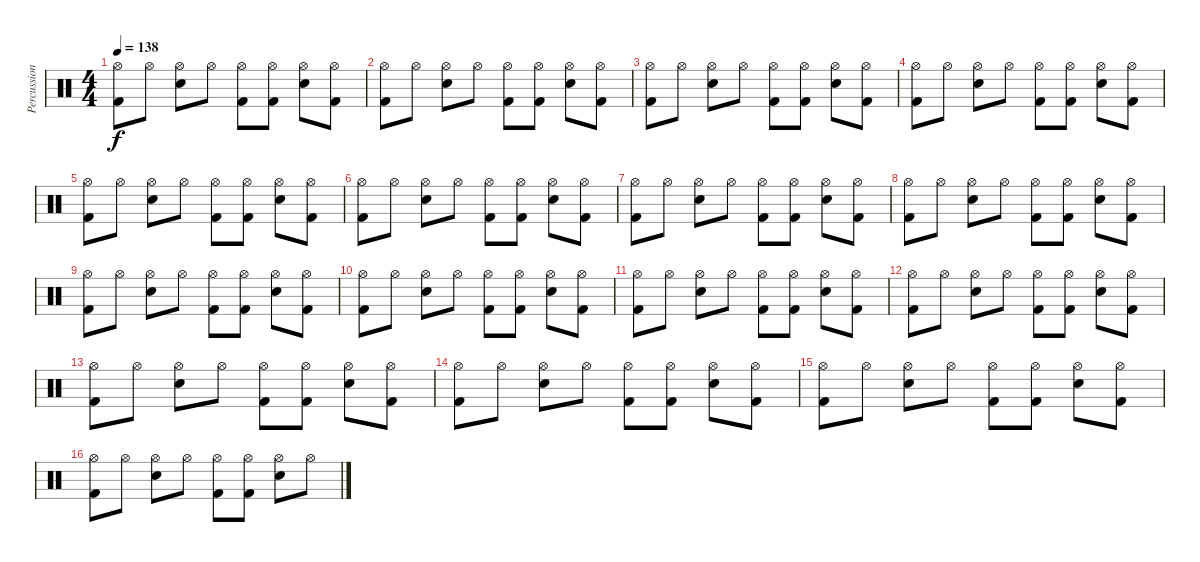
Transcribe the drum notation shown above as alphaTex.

\track ("Percussion" "Percussion") {instrument percussion}
\staff {score}
\articulation defaults
\ts (4 4)
\tempo 138
\clef neutral
\ks c
("Hi-Hat (open)" "Kick (hit) 2").8{dy f} "Hi-Hat (open)".8 ("Hi-Hat (open)" "Snare (hit) 2").8 "Hi-Hat (open)".8 ("Hi-Hat (open)" "Kick (hit) 2").8 ("Hi-Hat (open)" "Kick (hit) 2").8 ("Hi-Hat (open)" "Snare (hit) 2").8 ("Hi-Hat (open)" "Kick (hit) 2").8 |
("Hi-Hat (open)" "Kick (hit) 2").8 "Hi-Hat (open)".8 ("Hi-Hat (open)" "Snare (hit) 2").8 "Hi-Hat (open)".8 ("Hi-Hat (open)" "Kick (hit) 2").8 ("Hi-Hat (open)" "Kick (hit) 2").8 ("Hi-Hat (open)" "Snare (hit) 2").8 ("Hi-Hat (open)" "Kick (hit) 2").8 |
("Hi-Hat (open)" "Kick (hit) 2").8 "Hi-Hat (open)".8 ("Hi-Hat (open)" "Snare (hit) 2").8 "Hi-Hat (open)".8 ("Hi-Hat (open)" "Kick (hit) 2").8 ("Hi-Hat (open)" "Kick (hit) 2").8 ("Hi-Hat (open)" "Snare (hit) 2").8 ("Hi-Hat (open)" "Kick (hit) 2").8 |
("Hi-Hat (open)" "Kick (hit) 2").8 "Hi-Hat (open)".8 ("Hi-Hat (open)" "Snare (hit) 2").8 "Hi-Hat (open)".8 ("Hi-Hat (open)" "Kick (hit) 2").8 ("Hi-Hat (open)" "Kick (hit) 2").8 ("Hi-Hat (open)" "Snare (hit) 2").8 ("Hi-Hat (open)" "Kick (hit) 2").8 |
("Hi-Hat (open)" "Kick (hit) 2").8 "Hi-Hat (open)".8 ("Hi-Hat (open)" "Snare (hit) 2").8 "Hi-Hat (open)".8 ("Hi-Hat (open)" "Kick (hit) 2").8 ("Hi-Hat (open)" "Kick (hit) 2").8 ("Hi-Hat (open)" "Snare (hit) 2").8 ("Hi-Hat (open)" "Kick (hit) 2").8 |
("Hi-Hat (open)" "Kick (hit) 2").8 "Hi-Hat (open)".8 ("Hi-Hat (open)" "Snare (hit) 2").8 "Hi-Hat (open)".8 ("Hi-Hat (open)" "Kick (hit) 2").8 ("Hi-Hat (open)" "Kick (hit) 2").8 ("Hi-Hat (open)" "Snare (hit) 2").8 ("Hi-Hat (open)" "Kick (hit) 2").8 |
("Hi-Hat (open)" "Kick (hit) 2").8 "Hi-Hat (open)".8 ("Hi-Hat (open)" "Snare (hit) 2").8 "Hi-Hat (open)".8 ("Hi-Hat (open)" "Kick (hit) 2").8 ("Hi-Hat (open)" "Kick (hit) 2").8 ("Hi-Hat (open)" "Snare (hit) 2").8 ("Hi-Hat (open)" "Kick (hit) 2").8 |
("Hi-Hat (open)" "Kick (hit) 2").8 "Hi-Hat (open)".8 ("Hi-Hat (open)" "Snare (hit) 2").8 "Hi-Hat (open)".8 ("Hi-Hat (open)" "Kick (hit) 2").8 ("Hi-Hat (open)" "Kick (hit) 2").8 ("Hi-Hat (open)" "Snare (hit) 2").8 ("Hi-Hat (open)" "Kick (hit) 2").8 |
("Hi-Hat (open)" "Kick (hit) 2").8 "Hi-Hat (open)".8 ("Hi-Hat (open)" "Snare (hit) 2").8 "Hi-Hat (open)".8 ("Hi-Hat (open)" "Kick (hit) 2").8 ("Hi-Hat (open)" "Kick (hit) 2").8 ("Hi-Hat (open)" "Snare (hit) 2").8 ("Hi-Hat (open)" "Kick (hit) 2").8 |
("Hi-Hat (open)" "Kick (hit) 2").8 "Hi-Hat (open)".8 ("Hi-Hat (open)" "Snare (hit) 2").8 "Hi-Hat (open)".8 ("Hi-Hat (open)" "Kick (hit) 2").8 ("Hi-Hat (open)" "Kick (hit) 2").8 ("Hi-Hat (open)" "Snare (hit) 2").8 ("Hi-Hat (open)" "Kick (hit) 2").8 |
("Hi-Hat (open)" "Kick (hit) 2").8 "Hi-Hat (open)".8 ("Hi-Hat (open)" "Snare (hit) 2").8 "Hi-Hat (open)".8 ("Hi-Hat (open)" "Kick (hit) 2").8 ("Hi-Hat (open)" "Kick (hit) 2").8 ("Hi-Hat (open)" "Snare (hit) 2").8 ("Hi-Hat (open)" "Kick (hit) 2").8 |
("Hi-Hat (open)" "Kick (hit) 2").8 "Hi-Hat (open)".8 ("Hi-Hat (open)" "Snare (hit) 2").8 "Hi-Hat (open)".8 ("Hi-Hat (open)" "Kick (hit) 2").8 ("Hi-Hat (open)" "Kick (hit) 2").8 ("Hi-Hat (open)" "Snare (hit) 2").8 ("Hi-Hat (open)" "Kick (hit) 2").8 |
("Hi-Hat (open)" "Kick (hit) 2").8 "Hi-Hat (open)".8 ("Hi-Hat (open)" "Snare (hit) 2").8 "Hi-Hat (open)".8 ("Hi-Hat (open)" "Kick (hit) 2").8 ("Hi-Hat (open)" "Kick (hit) 2").8 ("Hi-Hat (open)" "Snare (hit) 2").8 ("Hi-Hat (open)" "Kick (hit) 2").8 |
("Hi-Hat (open)" "Kick (hit) 2").8 "Hi-Hat (open)".8 ("Hi-Hat (open)" "Snare (hit) 2").8 "Hi-Hat (open)".8 ("Hi-Hat (open)" "Kick (hit) 2").8 ("Hi-Hat (open)" "Kick (hit) 2").8 ("Hi-Hat (open)" "Snare (hit) 2").8 ("Hi-Hat (open)" "Kick (hit) 2").8 |
("Hi-Hat (open)" "Kick (hit) 2").8 "Hi-Hat (open)".8 ("Hi-Hat (open)" "Snare (hit) 2").8 "Hi-Hat (open)".8 ("Hi-Hat (open)" "Kick (hit) 2").8 ("Hi-Hat (open)" "Kick (hit) 2").8 ("Hi-Hat (open)" "Snare (hit) 2").8 ("Hi-Hat (open)" "Kick (hit) 2").8 |
("Hi-Hat (open)" "Kick (hit) 2").8 "Hi-Hat (open)".8 ("Hi-Hat (open)" "Snare (hit) 2").8 "Hi-Hat (open)".8 ("Hi-Hat (open)" "Kick (hit) 2").8 ("Hi-Hat (open)" "Kick (hit) 2").8 ("Hi-Hat (open)" "Snare (hit) 2").8 "Hi-Hat (open)".8
